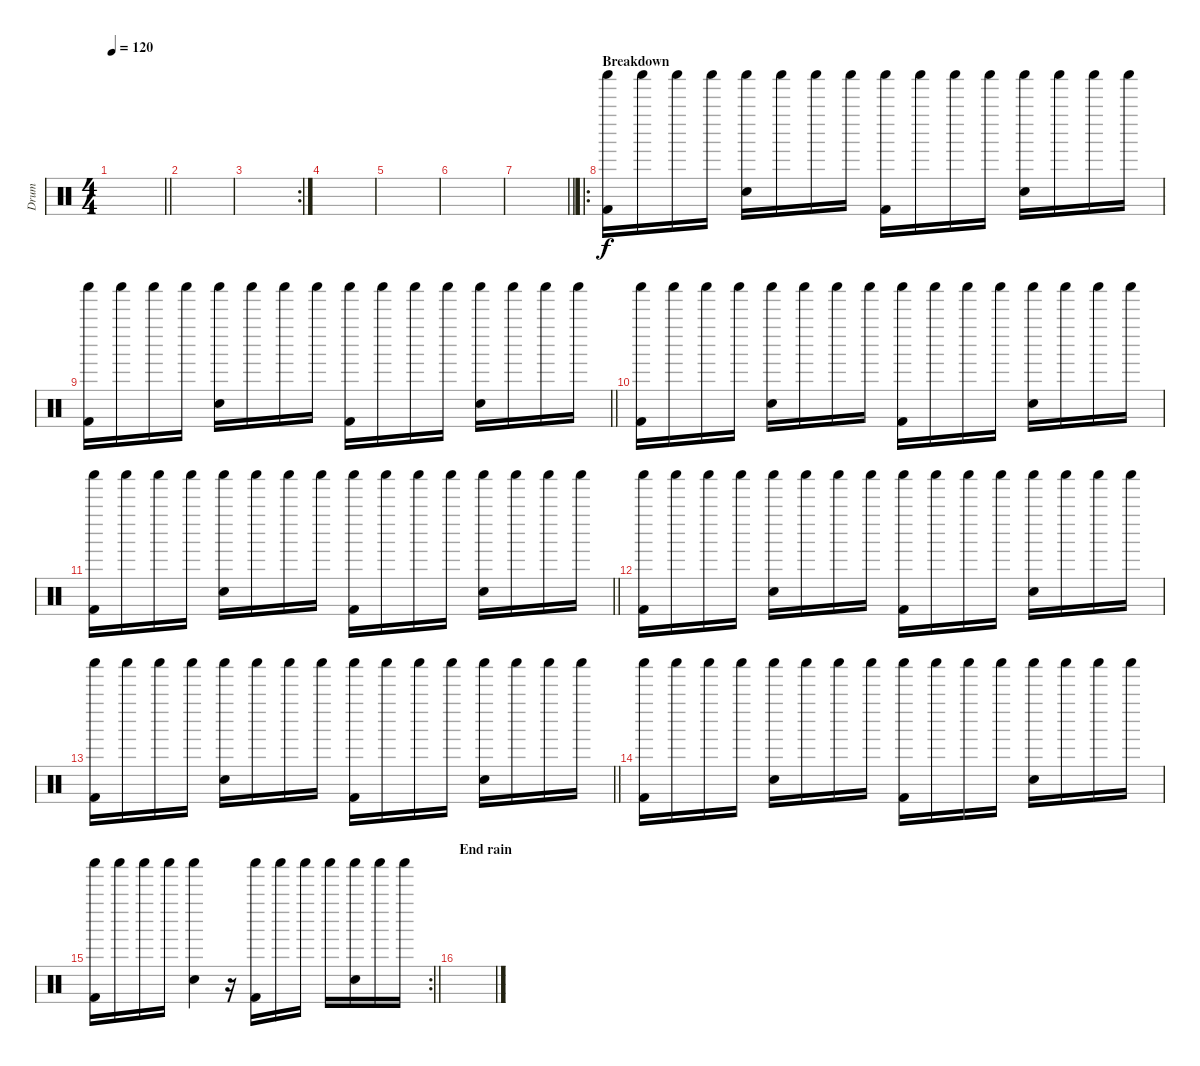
\track ("Drum " "Drum ") {instrument percussion}
\staff {score}
\articulation defaults
\ts (4 4)
\tempo 120
\clef neutral
\barLineRight lightlight
\ks c
|
|
\rc 2
|
|
|
|
\barLineRight lightlight
|
\ro
\section ("" "Breakdown")
("Kick (hit) 2" "Shaker (hit)").16 "Shaker (hit)".16 "Shaker (hit)".16 "Shaker (hit)".16 ("Electric Snare (hit)" "Shaker (hit)").16 "Shaker (hit)".16 "Shaker (hit)".16 "Shaker (hit)".16 ("Kick (hit) 2" "Shaker (hit)").16 "Shaker (hit)".16 "Shaker (hit)".16 "Shaker (hit)".16 ("Electric Snare (hit)" "Shaker (hit)").16 "Shaker (hit)".16 "Shaker (hit)".16 "Shaker (hit)".16 |
\barLineRight lightlight
("Kick (hit) 2" "Shaker (hit)").16 "Shaker (hit)".16 "Shaker (hit)".16 "Shaker (hit)".16 ("Electric Snare (hit)" "Shaker (hit)").16 "Shaker (hit)".16 "Shaker (hit)".16 "Shaker (hit)".16 ("Kick (hit) 2" "Shaker (hit)").16 "Shaker (hit)".16 "Shaker (hit)".16 "Shaker (hit)".16 ("Electric Snare (hit)" "Shaker (hit)").16 "Shaker (hit)".16 "Shaker (hit)".16 "Shaker (hit)".16 |
("Kick (hit) 2" "Shaker (hit)").16 "Shaker (hit)".16 "Shaker (hit)".16 "Shaker (hit)".16 ("Electric Snare (hit)" "Shaker (hit)").16 "Shaker (hit)".16 "Shaker (hit)".16 "Shaker (hit)".16 ("Kick (hit) 2" "Shaker (hit)").16 "Shaker (hit)".16 "Shaker (hit)".16 "Shaker (hit)".16 ("Electric Snare (hit)" "Shaker (hit)").16 "Shaker (hit)".16 "Shaker (hit)".16 "Shaker (hit)".16 |
\barLineRight lightlight
("Kick (hit) 2" "Shaker (hit)").16 "Shaker (hit)".16 "Shaker (hit)".16 "Shaker (hit)".16 ("Electric Snare (hit)" "Shaker (hit)").16 "Shaker (hit)".16 "Shaker (hit)".16 "Shaker (hit)".16 ("Kick (hit) 2" "Shaker (hit)").16 "Shaker (hit)".16 "Shaker (hit)".16 "Shaker (hit)".16 ("Electric Snare (hit)" "Shaker (hit)").16 "Shaker (hit)".16 "Shaker (hit)".16 "Shaker (hit)".16 |
("Kick (hit) 2" "Shaker (hit)").16 "Shaker (hit)".16 "Shaker (hit)".16 "Shaker (hit)".16 ("Electric Snare (hit)" "Shaker (hit)").16 "Shaker (hit)".16 "Shaker (hit)".16 "Shaker (hit)".16 ("Kick (hit) 2" "Shaker (hit)").16 "Shaker (hit)".16 "Shaker (hit)".16 "Shaker (hit)".16 ("Electric Snare (hit)" "Shaker (hit)").16 "Shaker (hit)".16 "Shaker (hit)".16 "Shaker (hit)".16 |
\barLineRight lightlight
("Kick (hit) 2" "Shaker (hit)").16 "Shaker (hit)".16 "Shaker (hit)".16 "Shaker (hit)".16 ("Electric Snare (hit)" "Shaker (hit)").16 "Shaker (hit)".16 "Shaker (hit)".16 "Shaker (hit)".16 ("Kick (hit) 2" "Shaker (hit)").16 "Shaker (hit)".16 "Shaker (hit)".16 "Shaker (hit)".16 ("Electric Snare (hit)" "Shaker (hit)").16 "Shaker (hit)".16 "Shaker (hit)".16 "Shaker (hit)".16 |
("Kick (hit) 2" "Shaker (hit)").16 "Shaker (hit)".16 "Shaker (hit)".16 "Shaker (hit)".16 ("Electric Snare (hit)" "Shaker (hit)").16 "Shaker (hit)".16 "Shaker (hit)".16 "Shaker (hit)".16 ("Kick (hit) 2" "Shaker (hit)").16 "Shaker (hit)".16 "Shaker (hit)".16 "Shaker (hit)".16 ("Electric Snare (hit)" "Shaker (hit)").16 "Shaker (hit)".16 "Shaker (hit)".16 "Shaker (hit)".16 |
\rc 2
\barLineRight lightlight
("Kick (hit) 2" "Shaker (hit)").16 "Shaker (hit)".16 "Shaker (hit)".16 "Shaker (hit)".16 ("Electric Snare (hit)" "Shaker (hit)").4 r.16 ("Kick (hit) 2" "Shaker (hit)").16 "Shaker (hit)".16 "Shaker (hit)".16 "Shaker (hit)".16 ("Electric Snare (hit)" "Shaker (hit)").16 "Shaker (hit)".16 "Shaker (hit)".16 |
\section ("" "End rain")
